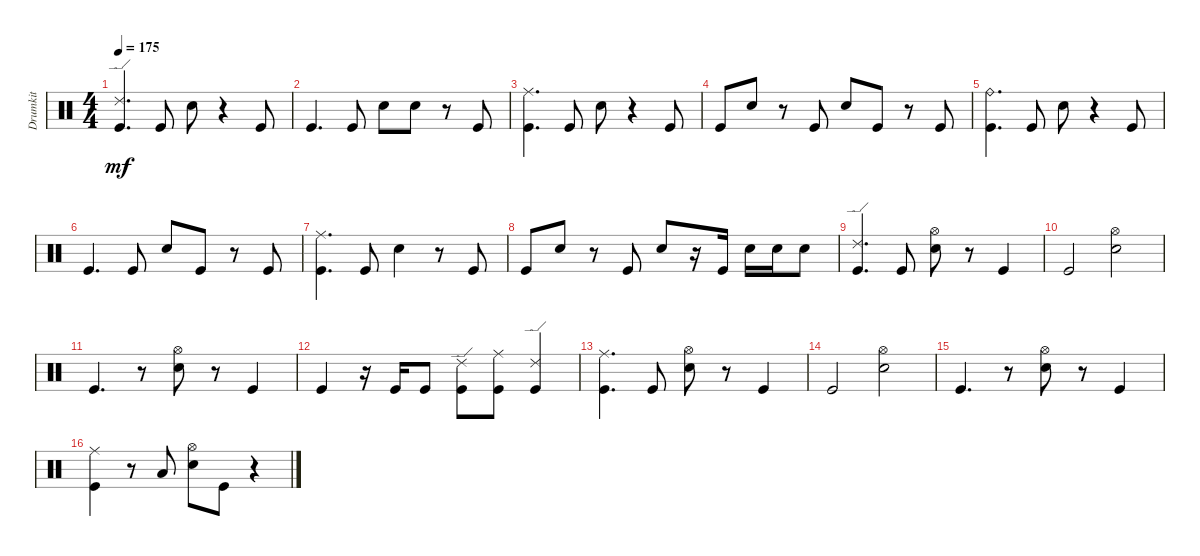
\track ("Drumkit" "Drumkit") {instrument percussion}
\staff {score}
\articulation defaults
\ts (4 4)
\tempo 175
\clef neutral
\ks c
("Kick (hit)" "Ride (edge) 2").4{d dy mf} "Kick (hit)".8 "Snare (hit) 2".8 r.4 "Kick (hit)".8 |
"Kick (hit)".4{d} "Kick (hit)".8 "Snare (hit) 2".8 "Snare (hit) 2".8 r.8 "Kick (hit)".8 |
("Kick (hit)" "Ride (middle)").4{d} "Kick (hit)".8 "Snare (hit) 2".8 r.4 "Kick (hit)".8 |
"Kick (hit)".8 "Snare (hit) 2".8 r.8 "Kick (hit)".8 "Snare (hit) 2".8 "Kick (hit)".8 r.8 "Kick (hit)".8 |
("Kick (hit)" "Ride (bell)").4{d} "Kick (hit)".8 "Snare (hit) 2".8 r.4 "Kick (hit)".8 |
"Kick (hit)".4{d} "Kick (hit)".8 "Snare (hit) 2".8 "Kick (hit)".8 r.8 "Kick (hit)".8 |
("Kick (hit)" "Ride (middle)").4{d} "Kick (hit)".8 "Snare (hit) 2".4 r.8 "Kick (hit)".8 |
"Kick (hit)".8 "Snare (hit) 2".8 r.8 "Kick (hit)".8 "Snare (hit) 2".8 r.16 "Kick (hit)".16 "Snare (hit) 2".16 "Snare (hit) 2".16 "Snare (hit) 2".8 |
("Kick (hit)" "Ride (edge) 2").4{d} "Kick (hit)".8 ("Snare (hit) 2" "Hi-Hat (open)").8 r.8 "Kick (hit)".4 |
"Kick (hit)".2 ("Snare (hit) 2" "Hi-Hat (open)").2 |
"Kick (hit)".4{d} r.8 ("Snare (hit) 2" "Hi-Hat (open)").8 r.8 "Kick (hit)".4 |
"Kick (hit)".4 r.16 "Kick (hit)".16 "Kick (hit)".8 ("Kick (hit)" "Ride (edge) 2").8 ("Kick (hit)" "Ride (middle)").8 ("Kick (hit)" "Ride (edge) 2").4 |
("Kick (hit)" "Ride (middle)").4{d} "Kick (hit)".8 ("Snare (hit) 2" "Hi-Hat (open)").8 r.8 "Kick (hit)".4 |
"Kick (hit)".2 ("Snare (hit) 2" "Hi-Hat (open)").2 |
"Kick (hit)".4{d} r.8 ("Snare (hit) 2" "Hi-Hat (open)").8 r.8 "Kick (hit)".4 |
("Kick (hit)" "Ride (middle)").4 r.8 "Low Tom (hit)".8 ("Snare (hit) 2" "Hi-Hat (open)").8 "Kick (hit)".8 r.4
